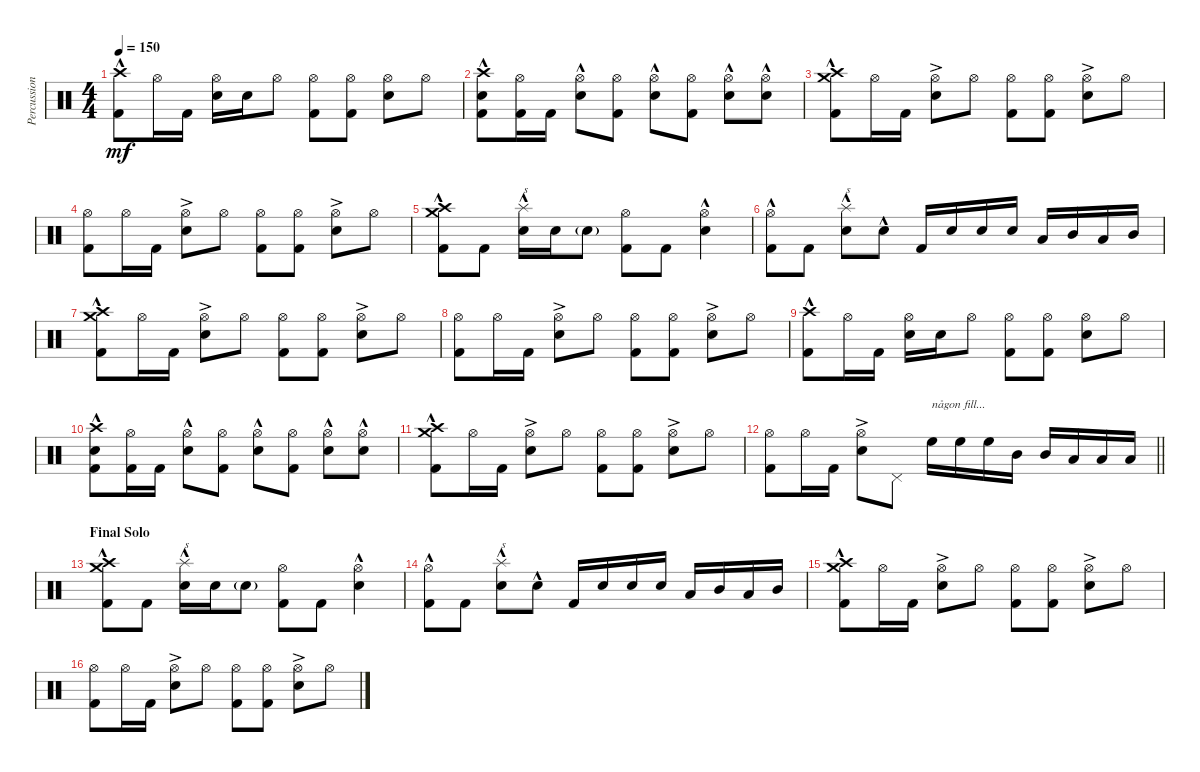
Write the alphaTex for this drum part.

\track ("Percussion" "Percussion") {instrument percussion}
\staff {score}
\articulation defaults
\ts (4 4)
\tempo 150
\clef neutral
\ks c
("Crash high (hit)"{hac} "Kick (hit) 2").8{dy mf} "Hi-Hat (open)".16 "Kick (hit) 2".16 ("Hi-Hat (open)" "Electric Snare (hit)").16 "Electric Snare (hit)".16 "Hi-Hat (open)".8 ("Hi-Hat (open)" "Kick (hit) 2").8 ("Hi-Hat (open)" "Kick (hit) 2").8 ("Hi-Hat (open)" "Electric Snare (hit)").8 "Hi-Hat (open)".8 |
("Crash high (hit)"{hac} "Electric Snare (hit)"{hac} "Kick (hit) 2").8 ("Hi-Hat (open)" "Kick (hit) 2").16 "Kick (hit) 2".16 ("Hi-Hat (open)" "Electric Snare (hit)"{hac}).8 ("Hi-Hat (open)" "Kick (hit) 2").8 ("Hi-Hat (open)" "Electric Snare (hit)"{hac}).8 ("Hi-Hat (open)" "Kick (hit) 2").8 ("Hi-Hat (open)" "Electric Snare (hit)"{hac}).8 ("Hi-Hat (open)" "Electric Snare (hit)"{hac}).8 |
("Crash high (hit)"{hac} "Crash medium (hit)" "Kick (hit) 2").8 "Hi-Hat (open)".16 "Kick (hit) 2".16 ("Hi-Hat (open)" "Electric Snare (hit)"{ac}).8 "Hi-Hat (open)".8 ("Hi-Hat (open)" "Kick (hit) 2").8 ("Hi-Hat (open)" "Kick (hit) 2").8 ("Hi-Hat (open)" "Electric Snare (hit)"{ac}).8 "Hi-Hat (open)".8 |
("Hi-Hat (open)" "Kick (hit) 2").8 "Hi-Hat (open)".16 "Kick (hit) 2".16 ("Hi-Hat (open)" "Electric Snare (hit)"{ac}).8 "Hi-Hat (open)".8 ("Hi-Hat (open)" "Kick (hit) 2").8 ("Hi-Hat (open)" "Kick (hit) 2").8 ("Hi-Hat (open)" "Electric Snare (hit)"{ac}).8 "Hi-Hat (open)".8 |
("Crash medium (hit)"{hac} "Crash high (hit)"{hac} "Kick (hit) 2").8 "Kick (hit) 2".8 ("Splash (hit)"{hac} "Electric Snare (hit)").16{txt "s"} "Electric Snare (hit)".16 "Electric Snare (hit)"{g}.8 ("Hi-Hat (open)" "Kick (hit) 2").8 "Kick (hit) 2".8 ("Hi-Hat (open)" "Electric Snare (hit)"{hac}).4 |
("Hi-Hat (open)"{hac} "Kick (hit) 2").8 "Kick (hit) 2".8 ("Splash (hit)" "Electric Snare (hit)"{hac}).8{txt "s"} "Electric Snare (hit)"{hac}.8 "Kick (hit) 2".16 "Electric Snare (hit)".16 "Electric Snare (hit)".16 "Electric Snare (hit)".16 "Low Tom (hit)".16 "Mid Tom (hit)".16 "Low Tom (hit)".16 "Mid Tom (hit)".16 |
("Crash high (hit)"{hac} "Crash medium (hit)" "Kick (hit) 2").8 "Hi-Hat (open)".16 "Kick (hit) 2".16 ("Hi-Hat (open)" "Electric Snare (hit)"{ac}).8 "Hi-Hat (open)".8 ("Hi-Hat (open)" "Kick (hit) 2").8 ("Hi-Hat (open)" "Kick (hit) 2").8 ("Hi-Hat (open)" "Electric Snare (hit)"{ac}).8 "Hi-Hat (open)".8 |
("Hi-Hat (open)" "Kick (hit) 2").8 "Hi-Hat (open)".16 "Kick (hit) 2".16 ("Hi-Hat (open)" "Electric Snare (hit)"{ac}).8 "Hi-Hat (open)".8 ("Hi-Hat (open)" "Kick (hit) 2").8 ("Hi-Hat (open)" "Kick (hit) 2").8 ("Hi-Hat (open)" "Electric Snare (hit)"{ac}).8 "Hi-Hat (open)".8 |
("Crash high (hit)"{hac} "Kick (hit) 2").8 "Hi-Hat (open)".16 "Kick (hit) 2".16 ("Hi-Hat (open)" "Electric Snare (hit)").16 "Electric Snare (hit)".16 "Hi-Hat (open)".8 ("Hi-Hat (open)" "Kick (hit) 2").8 ("Hi-Hat (open)" "Kick (hit) 2").8 ("Hi-Hat (open)" "Electric Snare (hit)").8 "Hi-Hat (open)".8 |
("Crash high (hit)"{hac} "Electric Snare (hit)"{hac} "Kick (hit) 2").8 ("Hi-Hat (open)" "Kick (hit) 2").16 "Kick (hit) 2".16 ("Hi-Hat (open)" "Electric Snare (hit)"{hac}).8 ("Hi-Hat (open)" "Kick (hit) 2").8 ("Hi-Hat (open)" "Electric Snare (hit)"{hac}).8 ("Hi-Hat (open)" "Kick (hit) 2").8 ("Hi-Hat (open)" "Electric Snare (hit)"{hac}).8 ("Hi-Hat (open)" "Electric Snare (hit)"{hac}).8 |
("Crash high (hit)"{hac} "Crash medium (hit)" "Kick (hit) 2").8 "Hi-Hat (open)".16 "Kick (hit) 2".16 ("Hi-Hat (open)" "Electric Snare (hit)"{ac}).8 "Hi-Hat (open)".8 ("Hi-Hat (open)" "Kick (hit) 2").8 ("Hi-Hat (open)" "Kick (hit) 2").8 ("Hi-Hat (open)" "Electric Snare (hit)"{ac}).8 "Hi-Hat (open)".8 |
\barLineRight lightlight
("Hi-Hat (open)" "Kick (hit) 2").8 "Hi-Hat (open)".16 "Kick (hit) 2".16 ("Hi-Hat (open)" "Electric Snare (hit)"{ac}).8 "Pedal Hi-Hat (hit)".8 "High Floor Tom (hit)".16{txt "någon fill..."} "High Floor Tom (hit)".16 "High Floor Tom (hit)".16 "Mid Tom (hit)".16 "Mid Tom (hit)".16 "Low Floor Tom (hit)".16 "Low Floor Tom (hit)".16 "Low Floor Tom (hit)".16 |
\section ("" "Final Solo")
("Crash medium (hit)"{hac} "Crash high (hit)"{hac} "Kick (hit) 2").8 "Kick (hit) 2".8 ("Splash (hit)"{hac} "Electric Snare (hit)").16{txt "s"} "Electric Snare (hit)".16 "Electric Snare (hit)"{g}.8 ("Hi-Hat (open)" "Kick (hit) 2").8 "Kick (hit) 2".8 ("Hi-Hat (open)" "Electric Snare (hit)"{hac}).4 |
("Hi-Hat (open)"{hac} "Kick (hit) 2").8 "Kick (hit) 2".8 ("Splash (hit)" "Electric Snare (hit)"{hac}).8{txt "s"} "Electric Snare (hit)"{hac}.8 "Kick (hit) 2".16 "Electric Snare (hit)".16 "Electric Snare (hit)".16 "Electric Snare (hit)".16 "Low Tom (hit)".16 "Mid Tom (hit)".16 "Low Tom (hit)".16 "Mid Tom (hit)".16 |
("Crash high (hit)"{hac} "Crash medium (hit)" "Kick (hit) 2").8 "Hi-Hat (open)".16 "Kick (hit) 2".16 ("Hi-Hat (open)" "Electric Snare (hit)"{ac}).8 "Hi-Hat (open)".8 ("Hi-Hat (open)" "Kick (hit) 2").8 ("Hi-Hat (open)" "Kick (hit) 2").8 ("Hi-Hat (open)" "Electric Snare (hit)"{ac}).8 "Hi-Hat (open)".8 |
("Hi-Hat (open)" "Kick (hit) 2").8 "Hi-Hat (open)".16 "Kick (hit) 2".16 ("Hi-Hat (open)" "Electric Snare (hit)"{ac}).8 "Hi-Hat (open)".8 ("Hi-Hat (open)" "Kick (hit) 2").8 ("Hi-Hat (open)" "Kick (hit) 2").8 ("Hi-Hat (open)" "Electric Snare (hit)"{ac}).8 "Hi-Hat (open)".8
